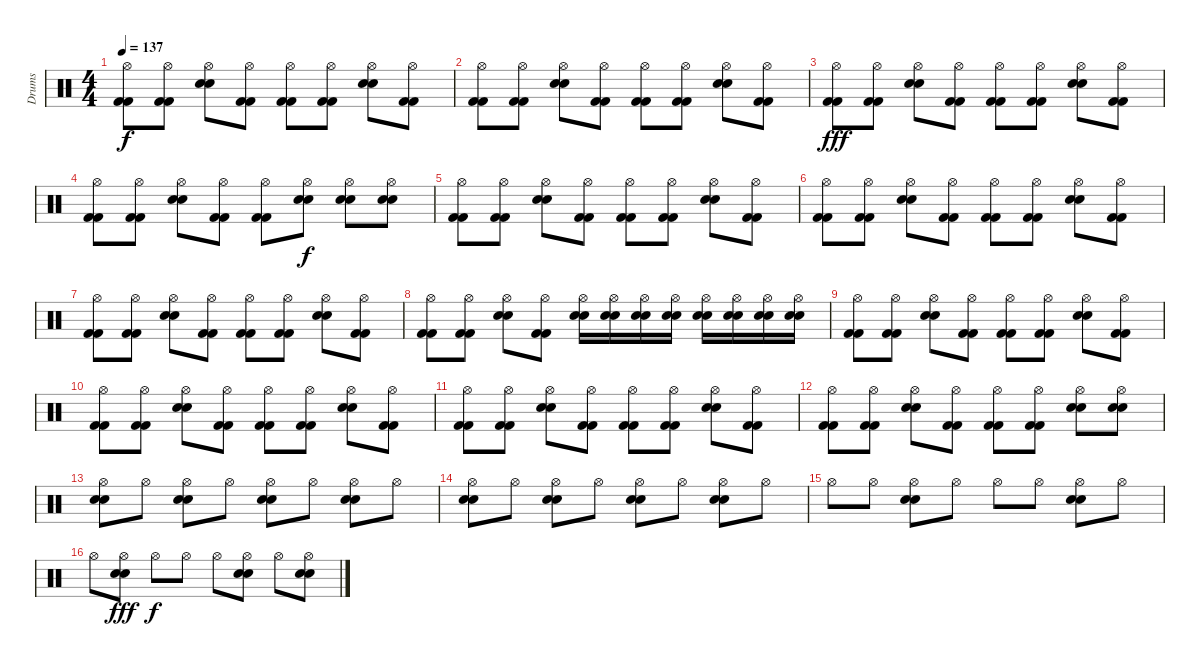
\track ("Drums" "Drums") {instrument percussion}
\staff {score}
\articulation defaults
\ts (4 4)
\tempo 137
\clef neutral
\ks c
("Hi-Hat (open)" "Kick (hit) 2" "Kick (hit) 2").8{dy f} ("Hi-Hat (open)" "Kick (hit) 2" "Kick (hit) 2").8 ("Hi-Hat (open)" "Electric Snare (hit)" "Electric Snare (hit)").8 ("Hi-Hat (open)" "Kick (hit) 2" "Kick (hit) 2").8 ("Hi-Hat (open)" "Kick (hit) 2" "Kick (hit) 2").8 ("Hi-Hat (open)" "Kick (hit) 2" "Kick (hit) 2").8 ("Hi-Hat (open)" "Electric Snare (hit)" "Electric Snare (hit)").8 ("Hi-Hat (open)" "Kick (hit) 2" "Kick (hit) 2").8 |
("Hi-Hat (open)" "Kick (hit) 2" "Kick (hit) 2").8 ("Hi-Hat (open)" "Kick (hit) 2" "Kick (hit) 2").8 ("Hi-Hat (open)" "Electric Snare (hit)" "Electric Snare (hit)").8 ("Hi-Hat (open)" "Kick (hit) 2" "Kick (hit) 2").8 ("Hi-Hat (open)" "Kick (hit) 2" "Kick (hit) 2").8 ("Hi-Hat (open)" "Kick (hit) 2" "Kick (hit) 2").8 ("Hi-Hat (open)" "Electric Snare (hit)" "Electric Snare (hit)").8 ("Hi-Hat (open)" "Kick (hit) 2" "Kick (hit) 2").8 |
("Hi-Hat (open)" "Kick (hit) 2" "Kick (hit) 2").8{dy fff} ("Hi-Hat (open)" "Kick (hit) 2" "Kick (hit) 2").8 ("Hi-Hat (open)" "Electric Snare (hit)" "Electric Snare (hit)").8 ("Hi-Hat (open)" "Kick (hit) 2" "Kick (hit) 2").8 ("Hi-Hat (open)" "Kick (hit) 2" "Kick (hit) 2").8 ("Hi-Hat (open)" "Kick (hit) 2" "Kick (hit) 2").8 ("Hi-Hat (open)" "Electric Snare (hit)" "Electric Snare (hit)").8 ("Hi-Hat (open)" "Kick (hit) 2" "Kick (hit) 2").8 |
("Hi-Hat (open)" "Kick (hit) 2" "Kick (hit) 2").8 ("Hi-Hat (open)" "Kick (hit) 2" "Kick (hit) 2").8 ("Hi-Hat (open)" "Electric Snare (hit)" "Electric Snare (hit)").8 ("Hi-Hat (open)" "Kick (hit) 2" "Kick (hit) 2").8 ("Hi-Hat (open)" "Kick (hit) 2" "Kick (hit) 2").8 ("Hi-Hat (open)" "Electric Snare (hit)" "Electric Snare (hit)").8{dy f} ("Hi-Hat (open)" "Electric Snare (hit)" "Electric Snare (hit)").8 ("Hi-Hat (open)" "Electric Snare (hit)" "Electric Snare (hit)").8 |
("Hi-Hat (open)" "Kick (hit) 2" "Kick (hit) 2").8 ("Hi-Hat (open)" "Kick (hit) 2" "Kick (hit) 2").8 ("Hi-Hat (open)" "Electric Snare (hit)" "Electric Snare (hit)").8 ("Hi-Hat (open)" "Kick (hit) 2" "Kick (hit) 2").8 ("Hi-Hat (open)" "Kick (hit) 2" "Kick (hit) 2").8 ("Hi-Hat (open)" "Kick (hit) 2" "Kick (hit) 2").8 ("Hi-Hat (open)" "Electric Snare (hit)" "Electric Snare (hit)").8 ("Hi-Hat (open)" "Kick (hit) 2" "Kick (hit) 2").8 |
("Hi-Hat (open)" "Kick (hit) 2" "Kick (hit) 2").8 ("Hi-Hat (open)" "Kick (hit) 2" "Kick (hit) 2").8 ("Hi-Hat (open)" "Electric Snare (hit)" "Electric Snare (hit)").8 ("Hi-Hat (open)" "Kick (hit) 2" "Kick (hit) 2").8 ("Hi-Hat (open)" "Kick (hit) 2" "Kick (hit) 2").8 ("Hi-Hat (open)" "Kick (hit) 2" "Kick (hit) 2").8 ("Hi-Hat (open)" "Electric Snare (hit)" "Electric Snare (hit)").8 ("Hi-Hat (open)" "Kick (hit) 2" "Kick (hit) 2").8 |
("Hi-Hat (open)" "Kick (hit) 2" "Kick (hit) 2").8 ("Hi-Hat (open)" "Kick (hit) 2" "Kick (hit) 2").8 ("Hi-Hat (open)" "Electric Snare (hit)" "Electric Snare (hit)").8 ("Hi-Hat (open)" "Kick (hit) 2" "Kick (hit) 2").8 ("Hi-Hat (open)" "Kick (hit) 2" "Kick (hit) 2").8 ("Hi-Hat (open)" "Kick (hit) 2" "Kick (hit) 2").8 ("Hi-Hat (open)" "Electric Snare (hit)" "Electric Snare (hit)").8 ("Hi-Hat (open)" "Kick (hit) 2" "Kick (hit) 2").8 |
("Hi-Hat (open)" "Kick (hit) 2" "Kick (hit) 2").8 ("Hi-Hat (open)" "Kick (hit) 2" "Kick (hit) 2").8 ("Hi-Hat (open)" "Electric Snare (hit)" "Electric Snare (hit)").8 ("Hi-Hat (open)" "Kick (hit) 2" "Kick (hit) 2").8 ("Hi-Hat (open)" "Electric Snare (hit)" "Electric Snare (hit)").16 ("Hi-Hat (open)" "Electric Snare (hit)" "Electric Snare (hit)").16 ("Hi-Hat (open)" "Electric Snare (hit)" "Electric Snare (hit)").16 ("Hi-Hat (open)" "Electric Snare (hit)" "Electric Snare (hit)").16 ("Hi-Hat (open)" "Electric Snare (hit)" "Electric Snare (hit)").16 ("Hi-Hat (open)" "Electric Snare (hit)" "Electric Snare (hit)").16 ("Hi-Hat (open)" "Electric Snare (hit)" "Electric Snare (hit)").16 ("Hi-Hat (open)" "Electric Snare (hit)" "Electric Snare (hit)").16 |
("Hi-Hat (open)" "Kick (hit) 2" "Kick (hit) 2").8 ("Hi-Hat (open)" "Kick (hit) 2" "Kick (hit) 2").8 ("Hi-Hat (open)" "Electric Snare (hit)" "Electric Snare (hit)").8 ("Hi-Hat (open)" "Kick (hit) 2" "Kick (hit) 2").8 ("Hi-Hat (open)" "Kick (hit) 2" "Kick (hit) 2").8 ("Hi-Hat (open)" "Kick (hit) 2" "Kick (hit) 2").8 ("Hi-Hat (open)" "Electric Snare (hit)" "Electric Snare (hit)").8 ("Hi-Hat (open)" "Kick (hit) 2" "Kick (hit) 2").8 |
("Hi-Hat (open)" "Kick (hit) 2" "Kick (hit) 2").8 ("Hi-Hat (open)" "Kick (hit) 2" "Kick (hit) 2").8 ("Hi-Hat (open)" "Electric Snare (hit)" "Electric Snare (hit)").8 ("Hi-Hat (open)" "Kick (hit) 2" "Kick (hit) 2").8 ("Hi-Hat (open)" "Kick (hit) 2" "Kick (hit) 2").8 ("Hi-Hat (open)" "Kick (hit) 2" "Kick (hit) 2").8 ("Hi-Hat (open)" "Electric Snare (hit)" "Electric Snare (hit)").8 ("Hi-Hat (open)" "Kick (hit) 2" "Kick (hit) 2").8 |
("Hi-Hat (open)" "Kick (hit) 2" "Kick (hit) 2").8 ("Hi-Hat (open)" "Kick (hit) 2" "Kick (hit) 2").8 ("Hi-Hat (open)" "Electric Snare (hit)" "Electric Snare (hit)").8 ("Hi-Hat (open)" "Kick (hit) 2" "Kick (hit) 2").8 ("Hi-Hat (open)" "Kick (hit) 2" "Kick (hit) 2").8 ("Hi-Hat (open)" "Kick (hit) 2" "Kick (hit) 2").8 ("Hi-Hat (open)" "Electric Snare (hit)" "Electric Snare (hit)").8 ("Hi-Hat (open)" "Kick (hit) 2" "Kick (hit) 2").8 |
("Hi-Hat (open)" "Kick (hit) 2" "Kick (hit) 2").8 ("Hi-Hat (open)" "Kick (hit) 2" "Kick (hit) 2").8 ("Hi-Hat (open)" "Electric Snare (hit)" "Electric Snare (hit)").8 ("Hi-Hat (open)" "Kick (hit) 2" "Kick (hit) 2").8 ("Hi-Hat (open)" "Kick (hit) 2" "Kick (hit) 2").8 ("Hi-Hat (open)" "Kick (hit) 2" "Kick (hit) 2").8 ("Hi-Hat (open)" "Electric Snare (hit)" "Electric Snare (hit)").8 ("Hi-Hat (open)" "Electric Snare (hit)" "Electric Snare (hit)").8 |
("Hi-Hat (open)" "Electric Snare (hit)" "Electric Snare (hit)").8 "Hi-Hat (open)".8 ("Hi-Hat (open)" "Electric Snare (hit)" "Electric Snare (hit)").8 "Hi-Hat (open)".8 ("Hi-Hat (open)" "Electric Snare (hit)" "Electric Snare (hit)").8 "Hi-Hat (open)".8 ("Hi-Hat (open)" "Electric Snare (hit)" "Electric Snare (hit)").8 "Hi-Hat (open)".8 |
("Hi-Hat (open)" "Electric Snare (hit)" "Electric Snare (hit)").8 "Hi-Hat (open)".8 ("Hi-Hat (open)" "Electric Snare (hit)" "Electric Snare (hit)").8 "Hi-Hat (open)".8 ("Hi-Hat (open)" "Electric Snare (hit)" "Electric Snare (hit)").8 "Hi-Hat (open)".8 ("Hi-Hat (open)" "Electric Snare (hit)" "Electric Snare (hit)").8 "Hi-Hat (open)".8 |
"Hi-Hat (open)".8 "Hi-Hat (open)".8 ("Hi-Hat (open)" "Electric Snare (hit)" "Electric Snare (hit)").8 "Hi-Hat (open)".8 "Hi-Hat (open)".8 "Hi-Hat (open)".8 ("Hi-Hat (open)" "Electric Snare (hit)" "Electric Snare (hit)").8 "Hi-Hat (open)".8 |
"Hi-Hat (open)".8 ("Hi-Hat (open)" "Electric Snare (hit)" "Electric Snare (hit)").8{dy fff} "Hi-Hat (open)".8{dy f} "Hi-Hat (open)".8 "Hi-Hat (open)".8 ("Hi-Hat (open)" "Electric Snare (hit)" "Electric Snare (hit)").8 "Hi-Hat (open)".8 ("Hi-Hat (open)" "Electric Snare (hit)" "Electric Snare (hit)").8
